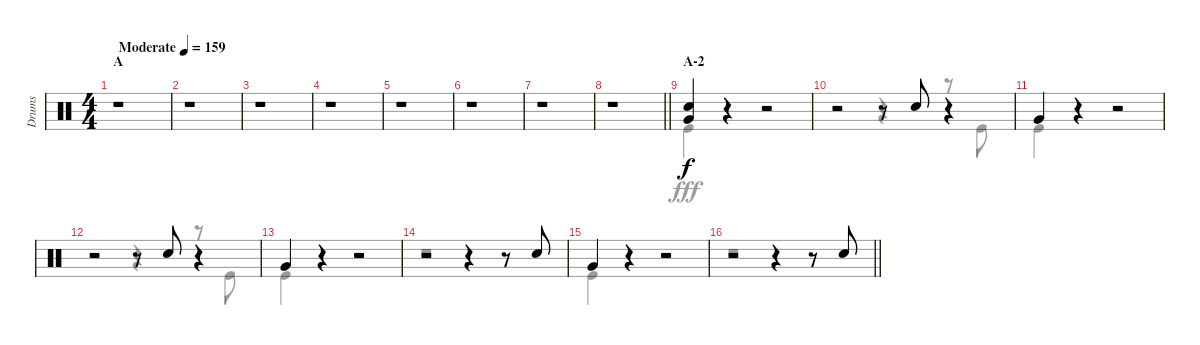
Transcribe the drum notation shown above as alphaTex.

\track ("Drums" "Drums") {instrument percussion}
\staff {score}
\articulation defaults
\voice
\ts (4 4)
\section ("" "A")
\tempo (159 "Moderate")
\clef neutral
\ks c
r.1{dy f} |
r.1 |
r.1 |
r.1 |
r.1 |
r.1 |
r.1 |
\barLineRight lightlight
r.1 |
\section ("" "A-2")
("Snare (hit) 2" "Very Low Tom (hit)").4 r.4 r.2 |
r.2 r.8 "Snare (hit) 2".8 r.4 |
"Very Low Tom (hit)".4 r.4 r.2 |
r.2 r.8 "Snare (hit) 2".8 r.4 |
"Very Low Tom (hit)".4 r.4 r.2 |
r.2 r.4 r.8 "Snare (hit) 2".8 |
"Very Low Tom (hit)".4 r.4 r.2 |
\barLineRight lightlight
r.2 r.4 r.8 "Snare (hit) 2".8
\voice
\clef neutral
\ottava regular
\simile none
\ks c
r.1{dy fff} |
r.1 |
r.1 |
r.1 |
r.1 |
r.1 |
r.1 |
\barLineRight lightlight
r.1 |
"Kick (hit)".4 r.4 r.2 |
r.2 r.4 r.8 "Kick (hit)".8 |
"Kick (hit)".4 r.4 r.2 |
r.2 r.4 r.8 "Kick (hit)".8 |
"Kick (hit)".4 r.4 r.2 |
r.1 |
"Kick (hit)".4 r.4 r.2 |
\barLineRight lightlight
r.1
